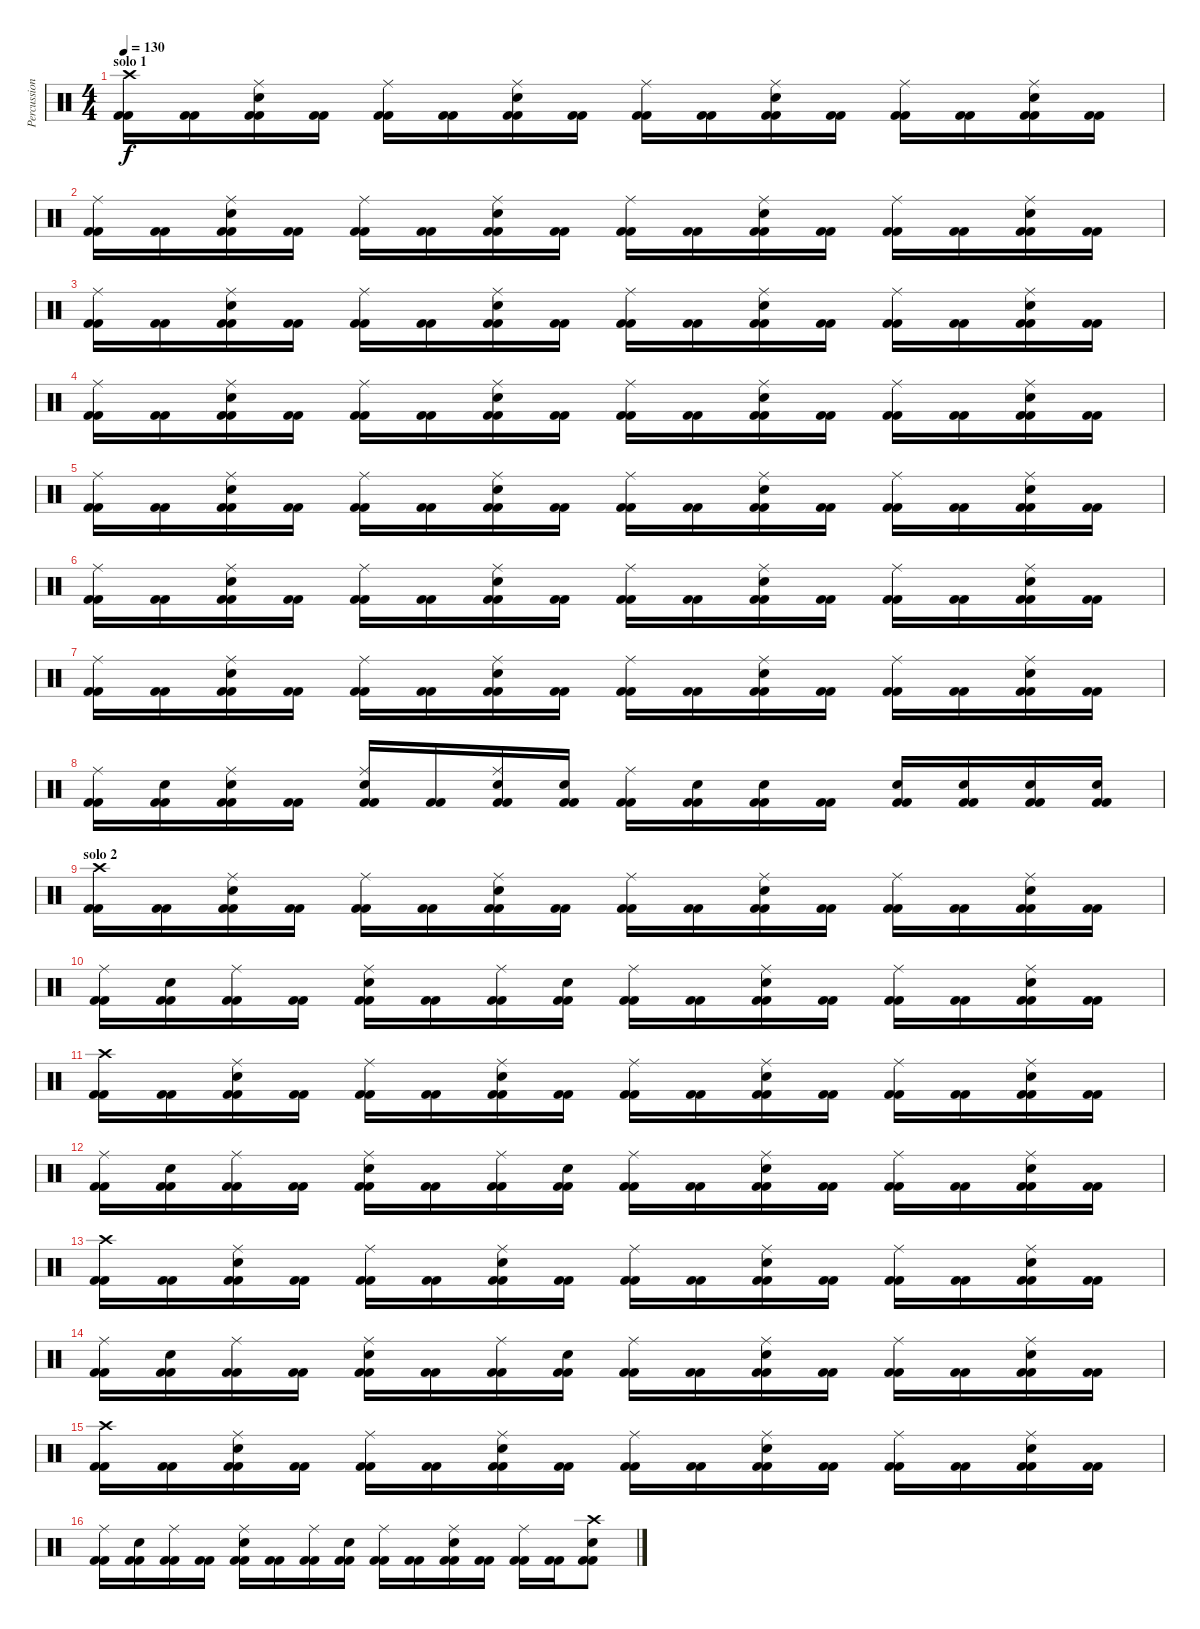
\track ("Percussion" "Percussion") {instrument percussion}
\staff {score}
\articulation defaults
\ts (4 4)
\section ("" "solo 1")
\tempo 130
\clef neutral
\ks c
("Crash high (hit)" "Kick (hit) 2" "Kick (hit) 2").16{dy f} ("Kick (hit) 2" "Kick (hit) 2").16 ("Ride (middle)" "Electric Snare (hit)" "Kick (hit) 2" "Kick (hit) 2").16 ("Kick (hit) 2" "Kick (hit) 2").16 ("Ride (middle)" "Kick (hit) 2" "Kick (hit) 2").16 ("Kick (hit) 2" "Kick (hit) 2").16 ("Ride (middle)" "Electric Snare (hit)" "Kick (hit) 2" "Kick (hit) 2").16 ("Kick (hit) 2" "Kick (hit) 2").16 ("Ride (middle)" "Kick (hit) 2" "Kick (hit) 2").16 ("Kick (hit) 2" "Kick (hit) 2").16 ("Ride (middle)" "Electric Snare (hit)" "Kick (hit) 2" "Kick (hit) 2").16 ("Kick (hit) 2" "Kick (hit) 2").16 ("Ride (middle)" "Kick (hit) 2" "Kick (hit) 2").16 ("Kick (hit) 2" "Kick (hit) 2").16 ("Ride (middle)" "Electric Snare (hit)" "Kick (hit) 2" "Kick (hit) 2").16 ("Kick (hit) 2" "Kick (hit) 2").16 |
("Ride (middle)" "Kick (hit) 2" "Kick (hit) 2").16 ("Kick (hit) 2" "Kick (hit) 2").16 ("Ride (middle)" "Electric Snare (hit)" "Kick (hit) 2" "Kick (hit) 2").16 ("Kick (hit) 2" "Kick (hit) 2").16 ("Ride (middle)" "Kick (hit) 2" "Kick (hit) 2").16 ("Kick (hit) 2" "Kick (hit) 2").16 ("Ride (middle)" "Electric Snare (hit)" "Kick (hit) 2" "Kick (hit) 2").16 ("Kick (hit) 2" "Kick (hit) 2").16 ("Ride (middle)" "Kick (hit) 2" "Kick (hit) 2").16 ("Kick (hit) 2" "Kick (hit) 2").16 ("Ride (middle)" "Electric Snare (hit)" "Kick (hit) 2" "Kick (hit) 2").16 ("Kick (hit) 2" "Kick (hit) 2").16 ("Ride (middle)" "Kick (hit) 2" "Kick (hit) 2").16 ("Kick (hit) 2" "Kick (hit) 2").16 ("Ride (middle)" "Electric Snare (hit)" "Kick (hit) 2" "Kick (hit) 2").16 ("Kick (hit) 2" "Kick (hit) 2").16 |
("Ride (middle)" "Kick (hit) 2" "Kick (hit) 2").16 ("Kick (hit) 2" "Kick (hit) 2").16 ("Ride (middle)" "Electric Snare (hit)" "Kick (hit) 2" "Kick (hit) 2").16 ("Kick (hit) 2" "Kick (hit) 2").16 ("Ride (middle)" "Kick (hit) 2" "Kick (hit) 2").16 ("Kick (hit) 2" "Kick (hit) 2").16 ("Ride (middle)" "Electric Snare (hit)" "Kick (hit) 2" "Kick (hit) 2").16 ("Kick (hit) 2" "Kick (hit) 2").16 ("Ride (middle)" "Kick (hit) 2" "Kick (hit) 2").16 ("Kick (hit) 2" "Kick (hit) 2").16 ("Ride (middle)" "Electric Snare (hit)" "Kick (hit) 2" "Kick (hit) 2").16 ("Kick (hit) 2" "Kick (hit) 2").16 ("Ride (middle)" "Kick (hit) 2" "Kick (hit) 2").16 ("Kick (hit) 2" "Kick (hit) 2").16 ("Ride (middle)" "Electric Snare (hit)" "Kick (hit) 2" "Kick (hit) 2").16 ("Kick (hit) 2" "Kick (hit) 2").16 |
("Ride (middle)" "Kick (hit) 2" "Kick (hit) 2").16 ("Kick (hit) 2" "Kick (hit) 2").16 ("Ride (middle)" "Electric Snare (hit)" "Kick (hit) 2" "Kick (hit) 2").16 ("Kick (hit) 2" "Kick (hit) 2").16 ("Ride (middle)" "Kick (hit) 2" "Kick (hit) 2").16 ("Kick (hit) 2" "Kick (hit) 2").16 ("Ride (middle)" "Electric Snare (hit)" "Kick (hit) 2" "Kick (hit) 2").16 ("Kick (hit) 2" "Kick (hit) 2").16 ("Ride (middle)" "Kick (hit) 2" "Kick (hit) 2").16 ("Kick (hit) 2" "Kick (hit) 2").16 ("Ride (middle)" "Electric Snare (hit)" "Kick (hit) 2" "Kick (hit) 2").16 ("Kick (hit) 2" "Kick (hit) 2").16 ("Ride (middle)" "Kick (hit) 2" "Kick (hit) 2").16 ("Kick (hit) 2" "Kick (hit) 2").16 ("Ride (middle)" "Electric Snare (hit)" "Kick (hit) 2" "Kick (hit) 2").16 ("Kick (hit) 2" "Kick (hit) 2").16 |
("Ride (middle)" "Kick (hit) 2" "Kick (hit) 2").16 ("Kick (hit) 2" "Kick (hit) 2").16 ("Ride (middle)" "Electric Snare (hit)" "Kick (hit) 2" "Kick (hit) 2").16 ("Kick (hit) 2" "Kick (hit) 2").16 ("Ride (middle)" "Kick (hit) 2" "Kick (hit) 2").16 ("Kick (hit) 2" "Kick (hit) 2").16 ("Ride (middle)" "Electric Snare (hit)" "Kick (hit) 2" "Kick (hit) 2").16 ("Kick (hit) 2" "Kick (hit) 2").16 ("Ride (middle)" "Kick (hit) 2" "Kick (hit) 2").16 ("Kick (hit) 2" "Kick (hit) 2").16 ("Ride (middle)" "Electric Snare (hit)" "Kick (hit) 2" "Kick (hit) 2").16 ("Kick (hit) 2" "Kick (hit) 2").16 ("Ride (middle)" "Kick (hit) 2" "Kick (hit) 2").16 ("Kick (hit) 2" "Kick (hit) 2").16 ("Ride (middle)" "Electric Snare (hit)" "Kick (hit) 2" "Kick (hit) 2").16 ("Kick (hit) 2" "Kick (hit) 2").16 |
("Ride (middle)" "Kick (hit) 2" "Kick (hit) 2").16 ("Kick (hit) 2" "Kick (hit) 2").16 ("Ride (middle)" "Electric Snare (hit)" "Kick (hit) 2" "Kick (hit) 2").16 ("Kick (hit) 2" "Kick (hit) 2").16 ("Ride (middle)" "Kick (hit) 2" "Kick (hit) 2").16 ("Kick (hit) 2" "Kick (hit) 2").16 ("Ride (middle)" "Electric Snare (hit)" "Kick (hit) 2" "Kick (hit) 2").16 ("Kick (hit) 2" "Kick (hit) 2").16 ("Ride (middle)" "Kick (hit) 2" "Kick (hit) 2").16 ("Kick (hit) 2" "Kick (hit) 2").16 ("Ride (middle)" "Electric Snare (hit)" "Kick (hit) 2" "Kick (hit) 2").16 ("Kick (hit) 2" "Kick (hit) 2").16 ("Ride (middle)" "Kick (hit) 2" "Kick (hit) 2").16 ("Kick (hit) 2" "Kick (hit) 2").16 ("Ride (middle)" "Electric Snare (hit)" "Kick (hit) 2" "Kick (hit) 2").16 ("Kick (hit) 2" "Kick (hit) 2").16 |
("Ride (middle)" "Kick (hit) 2" "Kick (hit) 2").16 ("Kick (hit) 2" "Kick (hit) 2").16 ("Ride (middle)" "Electric Snare (hit)" "Kick (hit) 2" "Kick (hit) 2").16 ("Kick (hit) 2" "Kick (hit) 2").16 ("Ride (middle)" "Kick (hit) 2" "Kick (hit) 2").16 ("Kick (hit) 2" "Kick (hit) 2").16 ("Ride (middle)" "Electric Snare (hit)" "Kick (hit) 2" "Kick (hit) 2").16 ("Kick (hit) 2" "Kick (hit) 2").16 ("Ride (middle)" "Kick (hit) 2" "Kick (hit) 2").16 ("Kick (hit) 2" "Kick (hit) 2").16 ("Ride (middle)" "Electric Snare (hit)" "Kick (hit) 2" "Kick (hit) 2").16 ("Kick (hit) 2" "Kick (hit) 2").16 ("Ride (middle)" "Kick (hit) 2" "Kick (hit) 2").16 ("Kick (hit) 2" "Kick (hit) 2").16 ("Ride (middle)" "Electric Snare (hit)" "Kick (hit) 2" "Kick (hit) 2").16 ("Kick (hit) 2" "Kick (hit) 2").16 |
("Ride (middle)" "Kick (hit) 2" "Kick (hit) 2").16 ("Electric Snare (hit)" "Kick (hit) 2" "Kick (hit) 2").16 ("Ride (middle)" "Electric Snare (hit)" "Kick (hit) 2" "Kick (hit) 2").16 ("Kick (hit) 2" "Kick (hit) 2").16 ("Ride (middle)" "Electric Snare (hit)" "Kick (hit) 2" "Kick (hit) 2").16 ("Kick (hit) 2" "Kick (hit) 2").16 ("Ride (middle)" "Electric Snare (hit)" "Kick (hit) 2" "Kick (hit) 2").16 ("Electric Snare (hit)" "Kick (hit) 2" "Kick (hit) 2").16 ("Ride (middle)" "Kick (hit) 2" "Kick (hit) 2").16 ("Electric Snare (hit)" "Kick (hit) 2" "Kick (hit) 2").16 ("Electric Snare (hit)" "Kick (hit) 2" "Kick (hit) 2").16 ("Kick (hit) 2" "Kick (hit) 2").16 ("Electric Snare (hit)" "Kick (hit) 2" "Kick (hit) 2").16 ("Electric Snare (hit)" "Kick (hit) 2" "Kick (hit) 2").16 ("Electric Snare (hit)" "Kick (hit) 2" "Kick (hit) 2").16 ("Electric Snare (hit)" "Kick (hit) 2" "Kick (hit) 2").16 |
\section ("" "solo 2")
("Crash high (hit)" "Kick (hit) 2" "Kick (hit) 2").16 ("Kick (hit) 2" "Kick (hit) 2").16 ("Ride (middle)" "Electric Snare (hit)" "Kick (hit) 2" "Kick (hit) 2").16 ("Kick (hit) 2" "Kick (hit) 2").16 ("Ride (middle)" "Kick (hit) 2" "Kick (hit) 2").16 ("Kick (hit) 2" "Kick (hit) 2").16 ("Ride (middle)" "Electric Snare (hit)" "Kick (hit) 2" "Kick (hit) 2").16 ("Kick (hit) 2" "Kick (hit) 2").16 ("Ride (middle)" "Kick (hit) 2" "Kick (hit) 2").16 ("Kick (hit) 2" "Kick (hit) 2").16 ("Ride (middle)" "Electric Snare (hit)" "Kick (hit) 2" "Kick (hit) 2").16 ("Kick (hit) 2" "Kick (hit) 2").16 ("Ride (middle)" "Kick (hit) 2" "Kick (hit) 2").16 ("Kick (hit) 2" "Kick (hit) 2").16 ("Ride (middle)" "Electric Snare (hit)" "Kick (hit) 2" "Kick (hit) 2").16 ("Kick (hit) 2" "Kick (hit) 2").16 |
("Ride (middle)" "Kick (hit) 2" "Kick (hit) 2").16 ("Electric Snare (hit)" "Kick (hit) 2" "Kick (hit) 2").16 ("Ride (middle)" "Kick (hit) 2" "Kick (hit) 2").16 ("Kick (hit) 2" "Kick (hit) 2").16 ("Ride (middle)" "Electric Snare (hit)" "Kick (hit) 2" "Kick (hit) 2").16 ("Kick (hit) 2" "Kick (hit) 2").16 ("Ride (middle)" "Kick (hit) 2" "Kick (hit) 2").16 ("Electric Snare (hit)" "Kick (hit) 2" "Kick (hit) 2").16 ("Ride (middle)" "Kick (hit) 2" "Kick (hit) 2").16 ("Kick (hit) 2" "Kick (hit) 2").16 ("Ride (middle)" "Electric Snare (hit)" "Kick (hit) 2" "Kick (hit) 2").16 ("Kick (hit) 2" "Kick (hit) 2").16 ("Ride (middle)" "Kick (hit) 2" "Kick (hit) 2").16 ("Kick (hit) 2" "Kick (hit) 2").16 ("Ride (middle)" "Electric Snare (hit)" "Kick (hit) 2" "Kick (hit) 2").16 ("Kick (hit) 2" "Kick (hit) 2").16 |
("Crash high (hit)" "Kick (hit) 2" "Kick (hit) 2").16 ("Kick (hit) 2" "Kick (hit) 2").16 ("Ride (middle)" "Electric Snare (hit)" "Kick (hit) 2" "Kick (hit) 2").16 ("Kick (hit) 2" "Kick (hit) 2").16 ("Ride (middle)" "Kick (hit) 2" "Kick (hit) 2").16 ("Kick (hit) 2" "Kick (hit) 2").16 ("Ride (middle)" "Electric Snare (hit)" "Kick (hit) 2" "Kick (hit) 2").16 ("Kick (hit) 2" "Kick (hit) 2").16 ("Ride (middle)" "Kick (hit) 2" "Kick (hit) 2").16 ("Kick (hit) 2" "Kick (hit) 2").16 ("Ride (middle)" "Electric Snare (hit)" "Kick (hit) 2" "Kick (hit) 2").16 ("Kick (hit) 2" "Kick (hit) 2").16 ("Ride (middle)" "Kick (hit) 2" "Kick (hit) 2").16 ("Kick (hit) 2" "Kick (hit) 2").16 ("Ride (middle)" "Electric Snare (hit)" "Kick (hit) 2" "Kick (hit) 2").16 ("Kick (hit) 2" "Kick (hit) 2").16 |
("Ride (middle)" "Kick (hit) 2" "Kick (hit) 2").16 ("Electric Snare (hit)" "Kick (hit) 2" "Kick (hit) 2").16 ("Ride (middle)" "Kick (hit) 2" "Kick (hit) 2").16 ("Kick (hit) 2" "Kick (hit) 2").16 ("Ride (middle)" "Electric Snare (hit)" "Kick (hit) 2" "Kick (hit) 2").16 ("Kick (hit) 2" "Kick (hit) 2").16 ("Ride (middle)" "Kick (hit) 2" "Kick (hit) 2").16 ("Electric Snare (hit)" "Kick (hit) 2" "Kick (hit) 2").16 ("Ride (middle)" "Kick (hit) 2" "Kick (hit) 2").16 ("Kick (hit) 2" "Kick (hit) 2").16 ("Ride (middle)" "Electric Snare (hit)" "Kick (hit) 2" "Kick (hit) 2").16 ("Kick (hit) 2" "Kick (hit) 2").16 ("Ride (middle)" "Kick (hit) 2" "Kick (hit) 2").16 ("Kick (hit) 2" "Kick (hit) 2").16 ("Ride (middle)" "Electric Snare (hit)" "Kick (hit) 2" "Kick (hit) 2").16 ("Kick (hit) 2" "Kick (hit) 2").16 |
("Crash high (hit)" "Kick (hit) 2" "Kick (hit) 2").16 ("Kick (hit) 2" "Kick (hit) 2").16 ("Ride (middle)" "Electric Snare (hit)" "Kick (hit) 2" "Kick (hit) 2").16 ("Kick (hit) 2" "Kick (hit) 2").16 ("Ride (middle)" "Kick (hit) 2" "Kick (hit) 2").16 ("Kick (hit) 2" "Kick (hit) 2").16 ("Ride (middle)" "Electric Snare (hit)" "Kick (hit) 2" "Kick (hit) 2").16 ("Kick (hit) 2" "Kick (hit) 2").16 ("Ride (middle)" "Kick (hit) 2" "Kick (hit) 2").16 ("Kick (hit) 2" "Kick (hit) 2").16 ("Ride (middle)" "Electric Snare (hit)" "Kick (hit) 2" "Kick (hit) 2").16 ("Kick (hit) 2" "Kick (hit) 2").16 ("Ride (middle)" "Kick (hit) 2" "Kick (hit) 2").16 ("Kick (hit) 2" "Kick (hit) 2").16 ("Ride (middle)" "Electric Snare (hit)" "Kick (hit) 2" "Kick (hit) 2").16 ("Kick (hit) 2" "Kick (hit) 2").16 |
("Ride (middle)" "Kick (hit) 2" "Kick (hit) 2").16 ("Electric Snare (hit)" "Kick (hit) 2" "Kick (hit) 2").16 ("Ride (middle)" "Kick (hit) 2" "Kick (hit) 2").16 ("Kick (hit) 2" "Kick (hit) 2").16 ("Ride (middle)" "Electric Snare (hit)" "Kick (hit) 2" "Kick (hit) 2").16 ("Kick (hit) 2" "Kick (hit) 2").16 ("Ride (middle)" "Kick (hit) 2" "Kick (hit) 2").16 ("Electric Snare (hit)" "Kick (hit) 2" "Kick (hit) 2").16 ("Ride (middle)" "Kick (hit) 2" "Kick (hit) 2").16 ("Kick (hit) 2" "Kick (hit) 2").16 ("Ride (middle)" "Electric Snare (hit)" "Kick (hit) 2" "Kick (hit) 2").16 ("Kick (hit) 2" "Kick (hit) 2").16 ("Ride (middle)" "Kick (hit) 2" "Kick (hit) 2").16 ("Kick (hit) 2" "Kick (hit) 2").16 ("Ride (middle)" "Electric Snare (hit)" "Kick (hit) 2" "Kick (hit) 2").16 ("Kick (hit) 2" "Kick (hit) 2").16 |
("Crash high (hit)" "Kick (hit) 2" "Kick (hit) 2").16 ("Kick (hit) 2" "Kick (hit) 2").16 ("Ride (middle)" "Electric Snare (hit)" "Kick (hit) 2" "Kick (hit) 2").16 ("Kick (hit) 2" "Kick (hit) 2").16 ("Ride (middle)" "Kick (hit) 2" "Kick (hit) 2").16 ("Kick (hit) 2" "Kick (hit) 2").16 ("Ride (middle)" "Electric Snare (hit)" "Kick (hit) 2" "Kick (hit) 2").16 ("Kick (hit) 2" "Kick (hit) 2").16 ("Ride (middle)" "Kick (hit) 2" "Kick (hit) 2").16 ("Kick (hit) 2" "Kick (hit) 2").16 ("Ride (middle)" "Electric Snare (hit)" "Kick (hit) 2" "Kick (hit) 2").16 ("Kick (hit) 2" "Kick (hit) 2").16 ("Ride (middle)" "Kick (hit) 2" "Kick (hit) 2").16 ("Kick (hit) 2" "Kick (hit) 2").16 ("Ride (middle)" "Electric Snare (hit)" "Kick (hit) 2" "Kick (hit) 2").16 ("Kick (hit) 2" "Kick (hit) 2").16 |
("Ride (middle)" "Kick (hit) 2" "Kick (hit) 2").16 ("Electric Snare (hit)" "Kick (hit) 2" "Kick (hit) 2").16 ("Ride (middle)" "Kick (hit) 2" "Kick (hit) 2").16 ("Kick (hit) 2" "Kick (hit) 2").16 ("Ride (middle)" "Electric Snare (hit)" "Kick (hit) 2" "Kick (hit) 2").16 ("Kick (hit) 2" "Kick (hit) 2").16 ("Ride (middle)" "Kick (hit) 2" "Kick (hit) 2").16 ("Electric Snare (hit)" "Kick (hit) 2" "Kick (hit) 2").16 ("Ride (middle)" "Kick (hit) 2" "Kick (hit) 2").16 ("Kick (hit) 2" "Kick (hit) 2").16 ("Ride (middle)" "Electric Snare (hit)" "Kick (hit) 2" "Kick (hit) 2").16 ("Kick (hit) 2" "Kick (hit) 2").16 ("Ride (middle)" "Kick (hit) 2" "Kick (hit) 2").16 ("Kick (hit) 2" "Kick (hit) 2").16 ("Crash high (hit)" "Electric Snare (hit)" "Kick (hit) 2" "Kick (hit) 2").8
